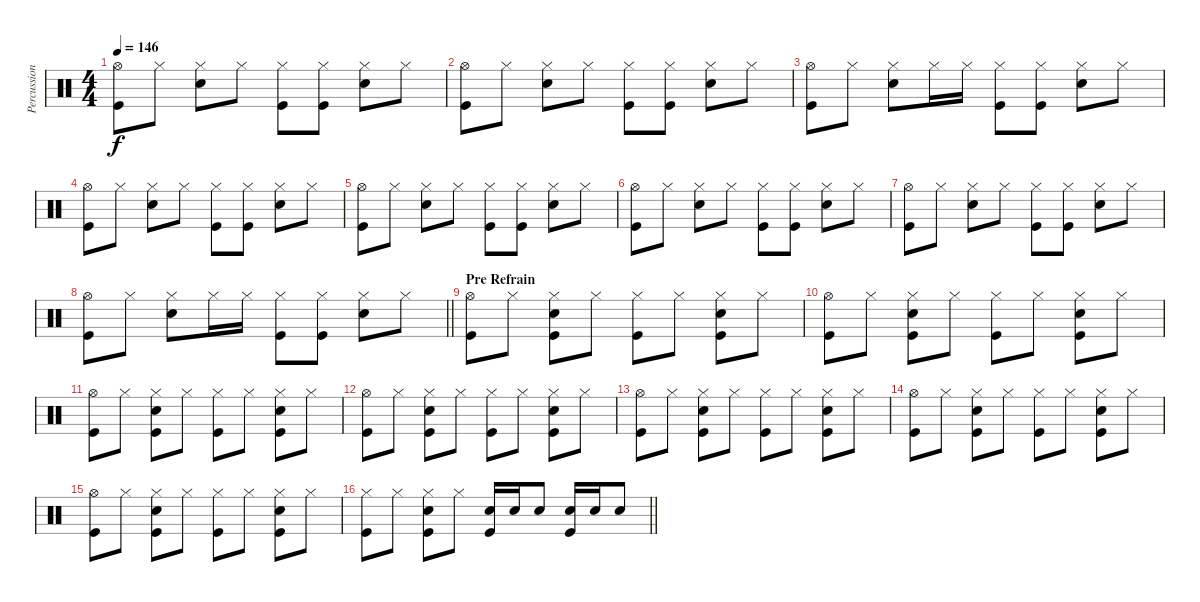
\track ("Percussions" "Percussion") {instrument percussion}
\staff {score}
\articulation defaults
\ts (4 4)
\tempo 146
\clef neutral
\ks c
("Hi-Hat (open)" "Kick (hit)").8{dy f} "Hi-Hat (closed)".8 ("Hi-Hat (closed)" "Snare (hit) 2").8 "Hi-Hat (closed)".8 ("Hi-Hat (closed)" "Kick (hit)").8 ("Hi-Hat (closed)" "Kick (hit)").8 ("Hi-Hat (closed)" "Snare (hit) 2").8 "Hi-Hat (closed)".8 |
("Hi-Hat (open)" "Kick (hit)").8 "Hi-Hat (closed)".8 ("Hi-Hat (closed)" "Snare (hit) 2").8 "Hi-Hat (closed)".8 ("Hi-Hat (closed)" "Kick (hit)").8 ("Hi-Hat (closed)" "Kick (hit)").8 ("Hi-Hat (closed)" "Snare (hit) 2").8 "Hi-Hat (closed)".8 |
("Hi-Hat (open)" "Kick (hit)").8 "Hi-Hat (closed)".8 ("Hi-Hat (closed)" "Snare (hit) 2").8 "Hi-Hat (closed)".16 "Hi-Hat (closed)".16 ("Hi-Hat (closed)" "Kick (hit)").8 ("Hi-Hat (closed)" "Kick (hit)").8 ("Hi-Hat (closed)" "Snare (hit) 2").8 "Hi-Hat (closed)".8 |
("Hi-Hat (open)" "Kick (hit)").8 "Hi-Hat (closed)".8 ("Hi-Hat (closed)" "Snare (hit) 2").8 "Hi-Hat (closed)".8 ("Hi-Hat (closed)" "Kick (hit)").8 ("Hi-Hat (closed)" "Kick (hit)").8 ("Hi-Hat (closed)" "Snare (hit) 2").8 "Hi-Hat (closed)".8 |
("Hi-Hat (open)" "Kick (hit)").8 "Hi-Hat (closed)".8 ("Hi-Hat (closed)" "Snare (hit) 2").8 "Hi-Hat (closed)".8 ("Hi-Hat (closed)" "Kick (hit)").8 ("Hi-Hat (closed)" "Kick (hit)").8 ("Hi-Hat (closed)" "Snare (hit) 2").8 "Hi-Hat (closed)".8 |
("Hi-Hat (open)" "Kick (hit)").8 "Hi-Hat (closed)".8 ("Hi-Hat (closed)" "Snare (hit) 2").8 "Hi-Hat (closed)".8 ("Hi-Hat (closed)" "Kick (hit)").8 ("Hi-Hat (closed)" "Kick (hit)").8 ("Hi-Hat (closed)" "Snare (hit) 2").8 "Hi-Hat (closed)".8 |
("Hi-Hat (open)" "Kick (hit)").8 "Hi-Hat (closed)".8 ("Hi-Hat (closed)" "Snare (hit) 2").8 "Hi-Hat (closed)".8 ("Hi-Hat (closed)" "Kick (hit)").8 ("Hi-Hat (closed)" "Kick (hit)").8 ("Hi-Hat (closed)" "Snare (hit) 2").8 "Hi-Hat (closed)".8 |
\barLineRight lightlight
("Hi-Hat (open)" "Kick (hit)").8 "Hi-Hat (closed)".8 ("Hi-Hat (closed)" "Snare (hit) 2").8 "Hi-Hat (closed)".16 "Hi-Hat (closed)".16 ("Hi-Hat (closed)" "Kick (hit)").8 ("Hi-Hat (closed)" "Kick (hit)").8 ("Hi-Hat (closed)" "Snare (hit) 2").8 "Hi-Hat (closed)".8 |
\section ("" "Pre Refrain")
("Hi-Hat (open)" "Kick (hit)").8 "Hi-Hat (closed)".8 ("Hi-Hat (closed)" "Snare (hit) 2" "Kick (hit)").8 "Hi-Hat (closed)".8 ("Hi-Hat (closed)" "Kick (hit)").8 "Hi-Hat (closed)".8 ("Hi-Hat (closed)" "Kick (hit)" "Snare (hit) 2").8 "Hi-Hat (closed)".8 |
("Hi-Hat (open)" "Kick (hit)").8 "Hi-Hat (closed)".8 ("Hi-Hat (closed)" "Snare (hit) 2" "Kick (hit)").8 "Hi-Hat (closed)".8 ("Hi-Hat (closed)" "Kick (hit)").8 "Hi-Hat (closed)".8 ("Hi-Hat (closed)" "Kick (hit)" "Snare (hit) 2").8 "Hi-Hat (closed)".8 |
("Hi-Hat (open)" "Kick (hit)").8 "Hi-Hat (closed)".8 ("Hi-Hat (closed)" "Snare (hit) 2" "Kick (hit)").8 "Hi-Hat (closed)".8 ("Hi-Hat (closed)" "Kick (hit)").8 "Hi-Hat (closed)".8 ("Hi-Hat (closed)" "Kick (hit)" "Snare (hit) 2").8 "Hi-Hat (closed)".8 |
("Hi-Hat (open)" "Kick (hit)").8 "Hi-Hat (closed)".8 ("Hi-Hat (closed)" "Snare (hit) 2" "Kick (hit)").8 "Hi-Hat (closed)".8 ("Hi-Hat (closed)" "Kick (hit)").8 "Hi-Hat (closed)".8 ("Hi-Hat (closed)" "Kick (hit)" "Snare (hit) 2").8 "Hi-Hat (closed)".8 |
("Hi-Hat (open)" "Kick (hit)").8 "Hi-Hat (closed)".8 ("Hi-Hat (closed)" "Snare (hit) 2" "Kick (hit)").8 "Hi-Hat (closed)".8 ("Hi-Hat (closed)" "Kick (hit)").8 "Hi-Hat (closed)".8 ("Hi-Hat (closed)" "Kick (hit)" "Snare (hit) 2").8 "Hi-Hat (closed)".8 |
("Hi-Hat (open)" "Kick (hit)").8 "Hi-Hat (closed)".8 ("Hi-Hat (closed)" "Snare (hit) 2" "Kick (hit)").8 "Hi-Hat (closed)".8 ("Hi-Hat (closed)" "Kick (hit)").8 "Hi-Hat (closed)".8 ("Hi-Hat (closed)" "Kick (hit)" "Snare (hit) 2").8 "Hi-Hat (closed)".8 |
("Hi-Hat (open)" "Kick (hit)").8 "Hi-Hat (closed)".8 ("Hi-Hat (closed)" "Snare (hit) 2" "Kick (hit)").8 "Hi-Hat (closed)".8 ("Hi-Hat (closed)" "Kick (hit)").8 "Hi-Hat (closed)".8 ("Hi-Hat (closed)" "Kick (hit)" "Snare (hit) 2").8 "Hi-Hat (closed)".8 |
\barLineRight lightlight
("Hi-Hat (closed)" "Kick (hit)").8 "Hi-Hat (closed)".8 ("Hi-Hat (closed)" "Kick (hit)" "Snare (hit) 2").8 "Hi-Hat (closed)".8 ("Snare (hit) 2" "Kick (hit)").16 "Snare (hit) 2".16 "Snare (hit) 2".8 ("Snare (hit) 2" "Kick (hit)").16 "Snare (hit) 2".16 "Snare (hit) 2".8
